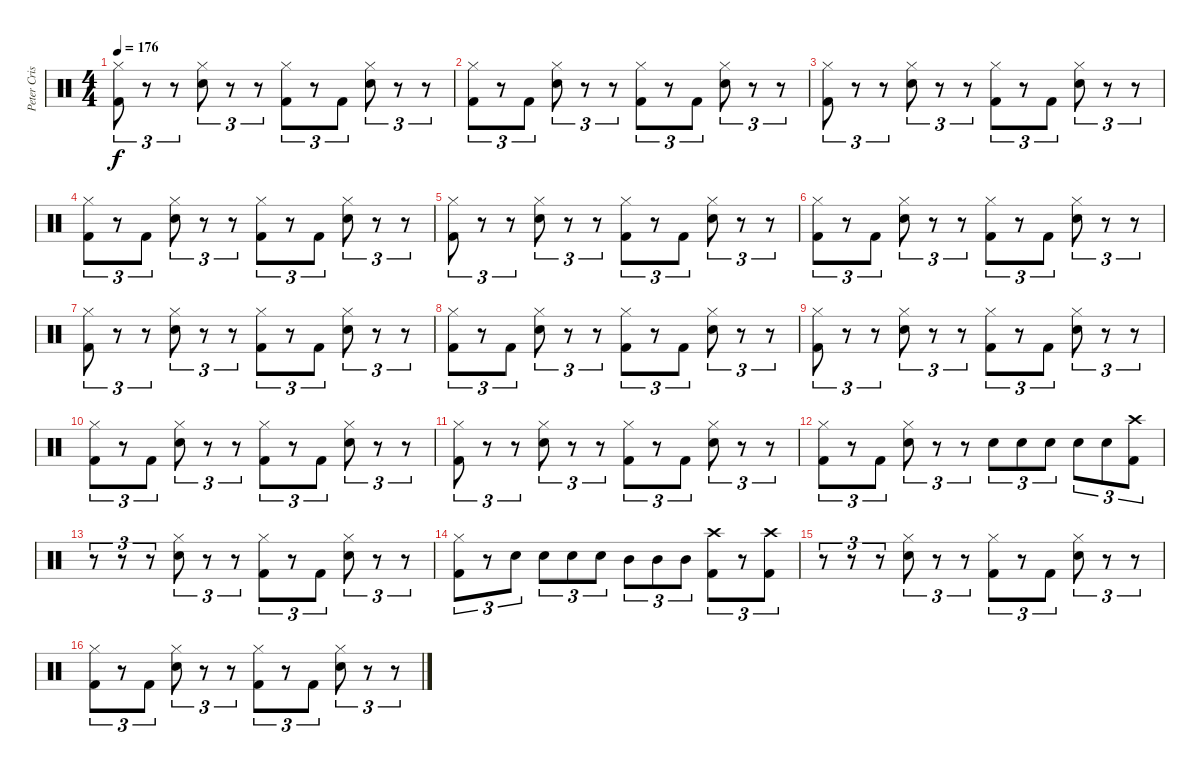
\track ("Peter Criss" "Peter Cris") {instrument percussion}
\staff {score}
\articulation defaults
\ts (4 4)
\tempo 176
\clef neutral
\ks c
("Hi-Hat (closed)" "Kick (hit) 2").8{tu (3 2) dy f} r.8{tu (3 2)} r.8{tu (3 2)} ("Hi-Hat (closed)" "Electric Snare (hit)").8{tu (3 2)} r.8{tu (3 2)} r.8{tu (3 2)} ("Hi-Hat (closed)" "Kick (hit) 2").8{tu (3 2)} r.8{tu (3 2)} "Kick (hit) 2".8{tu (3 2)} ("Hi-Hat (closed)" "Electric Snare (hit)").8{tu (3 2)} r.8{tu (3 2)} r.8{tu (3 2)} |
("Hi-Hat (closed)" "Kick (hit) 2").8{tu (3 2)} r.8{tu (3 2)} "Kick (hit) 2".8{tu (3 2)} ("Hi-Hat (closed)" "Electric Snare (hit)").8{tu (3 2)} r.8{tu (3 2)} r.8{tu (3 2)} ("Hi-Hat (closed)" "Kick (hit) 2").8{tu (3 2)} r.8{tu (3 2)} "Kick (hit) 2".8{tu (3 2)} ("Hi-Hat (closed)" "Electric Snare (hit)").8{tu (3 2)} r.8{tu (3 2)} r.8{tu (3 2)} |
("Hi-Hat (closed)" "Kick (hit) 2").8{tu (3 2)} r.8{tu (3 2)} r.8{tu (3 2)} ("Hi-Hat (closed)" "Electric Snare (hit)").8{tu (3 2)} r.8{tu (3 2)} r.8{tu (3 2)} ("Hi-Hat (closed)" "Kick (hit) 2").8{tu (3 2)} r.8{tu (3 2)} "Kick (hit) 2".8{tu (3 2)} ("Hi-Hat (closed)" "Electric Snare (hit)").8{tu (3 2)} r.8{tu (3 2)} r.8{tu (3 2)} |
("Hi-Hat (closed)" "Kick (hit) 2").8{tu (3 2)} r.8{tu (3 2)} "Kick (hit) 2".8{tu (3 2)} ("Hi-Hat (closed)" "Electric Snare (hit)").8{tu (3 2)} r.8{tu (3 2)} r.8{tu (3 2)} ("Hi-Hat (closed)" "Kick (hit) 2").8{tu (3 2)} r.8{tu (3 2)} "Kick (hit) 2".8{tu (3 2)} ("Hi-Hat (closed)" "Electric Snare (hit)").8{tu (3 2)} r.8{tu (3 2)} r.8{tu (3 2)} |
("Hi-Hat (closed)" "Kick (hit) 2").8{tu (3 2)} r.8{tu (3 2)} r.8{tu (3 2)} ("Hi-Hat (closed)" "Electric Snare (hit)").8{tu (3 2)} r.8{tu (3 2)} r.8{tu (3 2)} ("Hi-Hat (closed)" "Kick (hit) 2").8{tu (3 2)} r.8{tu (3 2)} "Kick (hit) 2".8{tu (3 2)} ("Hi-Hat (closed)" "Electric Snare (hit)").8{tu (3 2)} r.8{tu (3 2)} r.8{tu (3 2)} |
("Hi-Hat (closed)" "Kick (hit) 2").8{tu (3 2)} r.8{tu (3 2)} "Kick (hit) 2".8{tu (3 2)} ("Hi-Hat (closed)" "Electric Snare (hit)").8{tu (3 2)} r.8{tu (3 2)} r.8{tu (3 2)} ("Hi-Hat (closed)" "Kick (hit) 2").8{tu (3 2)} r.8{tu (3 2)} "Kick (hit) 2".8{tu (3 2)} ("Hi-Hat (closed)" "Electric Snare (hit)").8{tu (3 2)} r.8{tu (3 2)} r.8{tu (3 2)} |
("Hi-Hat (closed)" "Kick (hit) 2").8{tu (3 2)} r.8{tu (3 2)} r.8{tu (3 2)} ("Hi-Hat (closed)" "Electric Snare (hit)").8{tu (3 2)} r.8{tu (3 2)} r.8{tu (3 2)} ("Hi-Hat (closed)" "Kick (hit) 2").8{tu (3 2)} r.8{tu (3 2)} "Kick (hit) 2".8{tu (3 2)} ("Hi-Hat (closed)" "Electric Snare (hit)").8{tu (3 2)} r.8{tu (3 2)} r.8{tu (3 2)} |
("Hi-Hat (closed)" "Kick (hit) 2").8{tu (3 2)} r.8{tu (3 2)} "Kick (hit) 2".8{tu (3 2)} ("Hi-Hat (closed)" "Electric Snare (hit)").8{tu (3 2)} r.8{tu (3 2)} r.8{tu (3 2)} ("Hi-Hat (closed)" "Kick (hit) 2").8{tu (3 2)} r.8{tu (3 2)} "Kick (hit) 2".8{tu (3 2)} ("Hi-Hat (closed)" "Electric Snare (hit)").8{tu (3 2)} r.8{tu (3 2)} r.8{tu (3 2)} |
("Hi-Hat (closed)" "Kick (hit) 2").8{tu (3 2)} r.8{tu (3 2)} r.8{tu (3 2)} ("Hi-Hat (closed)" "Electric Snare (hit)").8{tu (3 2)} r.8{tu (3 2)} r.8{tu (3 2)} ("Hi-Hat (closed)" "Kick (hit) 2").8{tu (3 2)} r.8{tu (3 2)} "Kick (hit) 2".8{tu (3 2)} ("Hi-Hat (closed)" "Electric Snare (hit)").8{tu (3 2)} r.8{tu (3 2)} r.8{tu (3 2)} |
("Hi-Hat (closed)" "Kick (hit) 2").8{tu (3 2)} r.8{tu (3 2)} "Kick (hit) 2".8{tu (3 2)} ("Hi-Hat (closed)" "Electric Snare (hit)").8{tu (3 2)} r.8{tu (3 2)} r.8{tu (3 2)} ("Hi-Hat (closed)" "Kick (hit) 2").8{tu (3 2)} r.8{tu (3 2)} "Kick (hit) 2".8{tu (3 2)} ("Hi-Hat (closed)" "Electric Snare (hit)").8{tu (3 2)} r.8{tu (3 2)} r.8{tu (3 2)} |
("Hi-Hat (closed)" "Kick (hit) 2").8{tu (3 2)} r.8{tu (3 2)} r.8{tu (3 2)} ("Hi-Hat (closed)" "Electric Snare (hit)").8{tu (3 2)} r.8{tu (3 2)} r.8{tu (3 2)} ("Hi-Hat (closed)" "Kick (hit) 2").8{tu (3 2)} r.8{tu (3 2)} "Kick (hit) 2".8{tu (3 2)} ("Hi-Hat (closed)" "Electric Snare (hit)").8{tu (3 2)} r.8{tu (3 2)} r.8{tu (3 2)} |
("Hi-Hat (closed)" "Kick (hit) 2").8{tu (3 2)} r.8{tu (3 2)} "Kick (hit) 2".8{tu (3 2)} ("Hi-Hat (closed)" "Electric Snare (hit)").8{tu (3 2)} r.8{tu (3 2)} r.8{tu (3 2)} "Electric Snare (hit)".8{tu (3 2)} "Electric Snare (hit)".8{tu (3 2)} "Electric Snare (hit)".8{tu (3 2)} "Electric Snare (hit)".8{tu (3 2)} "Electric Snare (hit)".8{tu (3 2)} ("Crash high (hit)" "Kick (hit) 2").8{tu (3 2)} |
r.8{tu (3 2)} r.8{tu (3 2)} r.8{tu (3 2)} ("Hi-Hat (closed)" "Electric Snare (hit)").8{tu (3 2)} r.8{tu (3 2)} r.8{tu (3 2)} ("Hi-Hat (closed)" "Kick (hit) 2").8{tu (3 2)} r.8{tu (3 2)} "Kick (hit) 2".8{tu (3 2)} ("Hi-Hat (closed)" "Electric Snare (hit)").8{tu (3 2)} r.8{tu (3 2)} r.8{tu (3 2)} |
("Hi-Hat (closed)" "Kick (hit) 2").8{tu (3 2)} r.8{tu (3 2)} "Electric Snare (hit)".8{tu (3 2)} "Electric Snare (hit)".8{tu (3 2)} "Electric Snare (hit)".8{tu (3 2)} "Electric Snare (hit)".8{tu (3 2)} "Mid Tom (hit)".8{tu (3 2)} "Mid Tom (hit)".8{tu (3 2)} "Mid Tom (hit)".8{tu (3 2)} ("Crash high (hit)" "Kick (hit) 2").8{tu (3 2)} r.8{tu (3 2)} ("Crash high (hit)" "Kick (hit) 2").8{tu (3 2)} |
r.8{tu (3 2)} r.8{tu (3 2)} r.8{tu (3 2)} ("Hi-Hat (closed)" "Electric Snare (hit)").8{tu (3 2)} r.8{tu (3 2)} r.8{tu (3 2)} ("Hi-Hat (closed)" "Kick (hit) 2").8{tu (3 2)} r.8{tu (3 2)} "Kick (hit) 2".8{tu (3 2)} ("Hi-Hat (closed)" "Electric Snare (hit)").8{tu (3 2)} r.8{tu (3 2)} r.8{tu (3 2)} |
("Hi-Hat (closed)" "Kick (hit) 2").8{tu (3 2)} r.8{tu (3 2)} "Kick (hit) 2".8{tu (3 2)} ("Hi-Hat (closed)" "Electric Snare (hit)").8{tu (3 2)} r.8{tu (3 2)} r.8{tu (3 2)} ("Hi-Hat (closed)" "Kick (hit) 2").8{tu (3 2)} r.8{tu (3 2)} "Kick (hit) 2".8{tu (3 2)} ("Hi-Hat (closed)" "Electric Snare (hit)").8{tu (3 2)} r.8{tu (3 2)} r.8{tu (3 2)}
